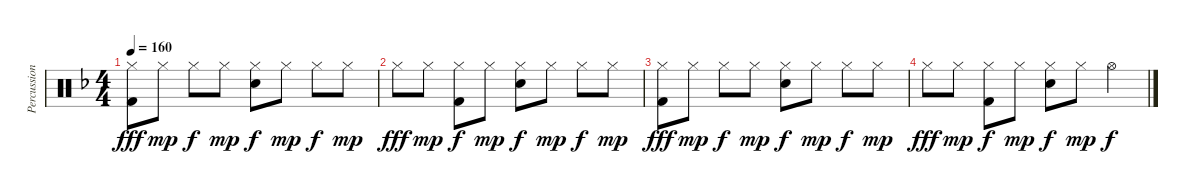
\track ("Percussion" "Percussion") {instrument percussion}
\staff {score}
\articulation defaults
\ts (4 4)
\tempo 160
\clef neutral
\ks f
("Hi-Hat (closed)" "Kick (hit) 2").8{dy fff} "Hi-Hat (closed)".8{dy mp} "Hi-Hat (closed)".8{dy f} "Hi-Hat (closed)".8{dy mp} ("Hi-Hat (closed)" "Electric Snare (hit)").8{dy f} "Hi-Hat (closed)".8{dy mp} "Hi-Hat (closed)".8{dy f} "Hi-Hat (closed)".8{dy mp} |
"Hi-Hat (closed)".8{dy fff} "Hi-Hat (closed)".8{dy mp} ("Hi-Hat (closed)" "Kick (hit) 2").8{dy f} "Hi-Hat (closed)".8{dy mp} ("Hi-Hat (closed)" "Electric Snare (hit)").8{dy f} "Hi-Hat (closed)".8{dy mp} "Hi-Hat (closed)".8{dy f} "Hi-Hat (closed)".8{dy mp} |
("Hi-Hat (closed)" "Kick (hit) 2").8{dy fff} "Hi-Hat (closed)".8{dy mp} "Hi-Hat (closed)".8{dy f} "Hi-Hat (closed)".8{dy mp} ("Hi-Hat (closed)" "Electric Snare (hit)").8{dy f} "Hi-Hat (closed)".8{dy mp} "Hi-Hat (closed)".8{dy f} "Hi-Hat (closed)".8{dy mp} |
"Hi-Hat (closed)".8{dy fff} "Hi-Hat (closed)".8{dy mp} ("Hi-Hat (closed)" "Kick (hit) 2").8{dy f} "Hi-Hat (closed)".8{dy mp} ("Hi-Hat (closed)" "Electric Snare (hit)").8{dy f} "Hi-Hat (closed)".8{dy mp} "Hi-Hat (open)".4{dy f}
